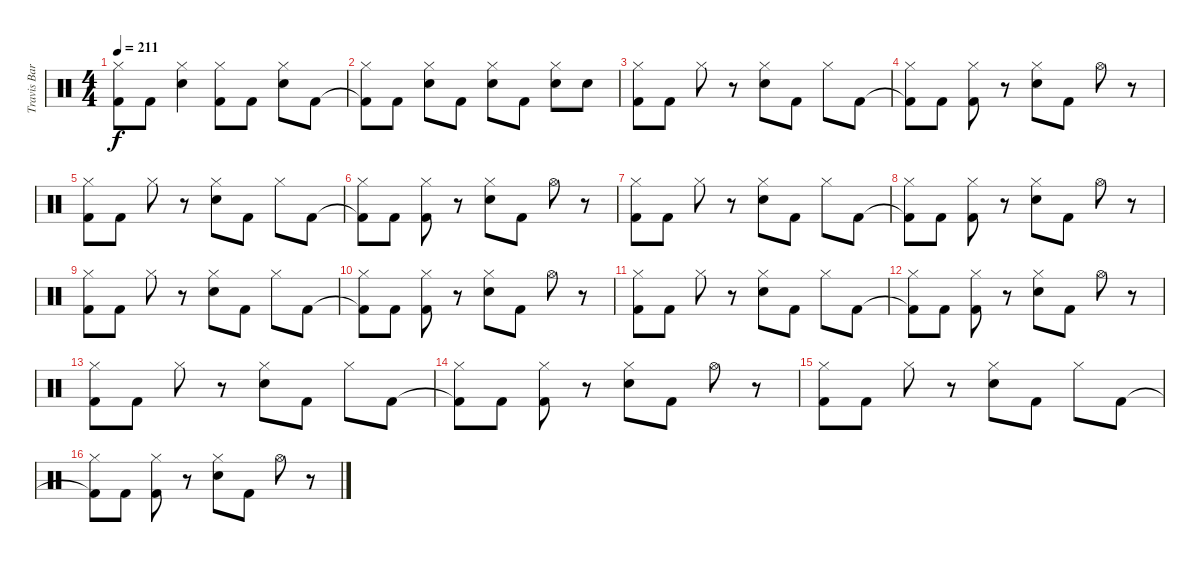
\track ("Travis Barker (Drums)" "Travis Bar") {instrument percussion}
\staff {score}
\articulation defaults
\ts (4 4)
\tempo 211
\clef neutral
\ks c
("Kick (hit) 2"{t} "Hi-Hat (closed)").8{dy f} "Kick (hit) 2".8 ("Electric Snare (hit)" "Hi-Hat (closed)").4 ("Kick (hit) 2" "Hi-Hat (closed)").8 "Kick (hit) 2".8 ("Electric Snare (hit)" "Hi-Hat (closed)").8 "Kick (hit) 2".8 |
("Kick (hit) 2"{t} "Hi-Hat (closed)").8 "Kick (hit) 2".8 ("Electric Snare (hit)" "Hi-Hat (closed)").8 "Kick (hit) 2".8 ("Electric Snare (hit)" "Hi-Hat (closed)").8 "Kick (hit) 2".8 ("Electric Snare (hit)" "Hi-Hat (closed)").8 "Electric Snare (hit)".8 |
("Kick (hit) 2" "Hi-Hat (closed)").8 "Kick (hit) 2".8 "Hi-Hat (closed)".8 r.8 ("Electric Snare (hit)" "Hi-Hat (closed)").8 "Kick (hit) 2".8 "Hi-Hat (closed)".8 "Kick (hit) 2".8 |
("Kick (hit) 2"{t} "Hi-Hat (closed)").8 "Kick (hit) 2".8 ("Kick (hit) 2" "Hi-Hat (closed)").8 r.8 ("Electric Snare (hit)" "Hi-Hat (closed)").8 "Kick (hit) 2".8 "Hi-Hat (open)".8 r.8 |
("Kick (hit) 2" "Hi-Hat (closed)").8 "Kick (hit) 2".8 "Hi-Hat (closed)".8 r.8 ("Electric Snare (hit)" "Hi-Hat (closed)").8 "Kick (hit) 2".8 "Hi-Hat (closed)".8 "Kick (hit) 2".8 |
("Kick (hit) 2"{t} "Hi-Hat (closed)").8 "Kick (hit) 2".8 ("Kick (hit) 2" "Hi-Hat (closed)").8 r.8 ("Electric Snare (hit)" "Hi-Hat (closed)").8 "Kick (hit) 2".8 "Hi-Hat (open)".8 r.8 |
("Kick (hit) 2" "Hi-Hat (closed)").8 "Kick (hit) 2".8 "Hi-Hat (closed)".8 r.8 ("Electric Snare (hit)" "Hi-Hat (closed)").8 "Kick (hit) 2".8 "Hi-Hat (closed)".8 "Kick (hit) 2".8 |
("Kick (hit) 2"{t} "Hi-Hat (closed)").8 "Kick (hit) 2".8 ("Kick (hit) 2" "Hi-Hat (closed)").8 r.8 ("Electric Snare (hit)" "Hi-Hat (closed)").8 "Kick (hit) 2".8 "Hi-Hat (open)".8 r.8 |
("Kick (hit) 2" "Hi-Hat (closed)").8 "Kick (hit) 2".8 "Hi-Hat (closed)".8 r.8 ("Electric Snare (hit)" "Hi-Hat (closed)").8 "Kick (hit) 2".8 "Hi-Hat (closed)".8 "Kick (hit) 2".8 |
("Kick (hit) 2"{t} "Hi-Hat (closed)").8 "Kick (hit) 2".8 ("Kick (hit) 2" "Hi-Hat (closed)").8 r.8 ("Electric Snare (hit)" "Hi-Hat (closed)").8 "Kick (hit) 2".8 "Hi-Hat (open)".8 r.8 |
("Kick (hit) 2" "Hi-Hat (closed)").8 "Kick (hit) 2".8 "Hi-Hat (closed)".8 r.8 ("Electric Snare (hit)" "Hi-Hat (closed)").8 "Kick (hit) 2".8 "Hi-Hat (closed)".8 "Kick (hit) 2".8 |
("Kick (hit) 2"{t} "Hi-Hat (closed)").8 "Kick (hit) 2".8 ("Kick (hit) 2" "Hi-Hat (closed)").8 r.8 ("Electric Snare (hit)" "Hi-Hat (closed)").8 "Kick (hit) 2".8 "Hi-Hat (open)".8 r.8 |
("Kick (hit) 2" "Hi-Hat (closed)").8 "Kick (hit) 2".8 "Hi-Hat (closed)".8 r.8 ("Electric Snare (hit)" "Hi-Hat (closed)").8 "Kick (hit) 2".8 "Hi-Hat (closed)".8 "Kick (hit) 2".8 |
("Kick (hit) 2"{t} "Hi-Hat (closed)").8 "Kick (hit) 2".8 ("Kick (hit) 2" "Hi-Hat (closed)").8 r.8 ("Electric Snare (hit)" "Hi-Hat (closed)").8 "Kick (hit) 2".8 "Hi-Hat (open)".8 r.8 |
("Kick (hit) 2" "Hi-Hat (closed)").8 "Kick (hit) 2".8 "Hi-Hat (closed)".8 r.8 ("Electric Snare (hit)" "Hi-Hat (closed)").8 "Kick (hit) 2".8 "Hi-Hat (closed)".8 "Kick (hit) 2".8 |
("Kick (hit) 2"{t} "Hi-Hat (closed)").8 "Kick (hit) 2".8 ("Kick (hit) 2" "Hi-Hat (closed)").8 r.8 ("Electric Snare (hit)" "Hi-Hat (closed)").8 "Kick (hit) 2".8 "Hi-Hat (open)".8 r.8
